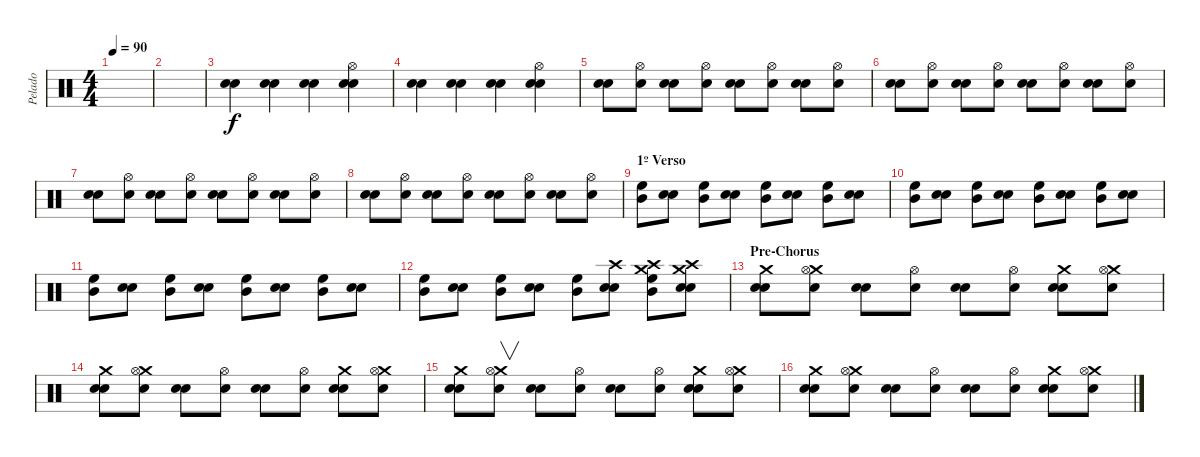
\track ("Pelado" "Pelado") {instrument percussion}
\staff {score}
\articulation defaults
\ts (4 4)
\tempo 90
\clef neutral
\ks c
|
|
("Electric Snare (hit)" "Electric Snare (hit)").4 ("Electric Snare (hit)" "Electric Snare (hit)").4 ("Electric Snare (hit)" "Electric Snare (hit)").4 ("Hi-Hat (open)" "Electric Snare (hit)" "Electric Snare (hit)").4 |
("Electric Snare (hit)" "Electric Snare (hit)").4 ("Electric Snare (hit)" "Electric Snare (hit)").4 ("Electric Snare (hit)" "Electric Snare (hit)").4 ("Hi-Hat (open)" "Electric Snare (hit)" "Electric Snare (hit)").4 |
("Electric Snare (hit)" "Electric Snare (hit)").8 ("Hi-Hat (open)" "Electric Snare (hit)").8 ("Electric Snare (hit)" "Electric Snare (hit)").8 ("Electric Snare (hit)" "Hi-Hat (open)").8 ("Electric Snare (hit)" "Electric Snare (hit)").8 ("Electric Snare (hit)" "Hi-Hat (open)").8 ("Electric Snare (hit)" "Electric Snare (hit)").8 ("Electric Snare (hit)" "Hi-Hat (open)").8 |
("Electric Snare (hit)" "Electric Snare (hit)").8 ("Hi-Hat (open)" "Electric Snare (hit)").8 ("Electric Snare (hit)" "Electric Snare (hit)").8 ("Electric Snare (hit)" "Hi-Hat (open)").8 ("Electric Snare (hit)" "Electric Snare (hit)").8 ("Electric Snare (hit)" "Hi-Hat (open)").8 ("Electric Snare (hit)" "Electric Snare (hit)").8 ("Electric Snare (hit)" "Hi-Hat (open)").8 |
("Electric Snare (hit)" "Electric Snare (hit)").8 ("Hi-Hat (open)" "Electric Snare (hit)").8 ("Electric Snare (hit)" "Electric Snare (hit)").8 ("Electric Snare (hit)" "Hi-Hat (open)").8 ("Electric Snare (hit)" "Electric Snare (hit)").8 ("Electric Snare (hit)" "Hi-Hat (open)").8 ("Electric Snare (hit)" "Electric Snare (hit)").8 ("Electric Snare (hit)" "Hi-Hat (open)").8 |
("Electric Snare (hit)" "Electric Snare (hit)").8 ("Hi-Hat (open)" "Electric Snare (hit)").8 ("Electric Snare (hit)" "Electric Snare (hit)").8 ("Electric Snare (hit)" "Hi-Hat (open)").8 ("Electric Snare (hit)" "Electric Snare (hit)").8 ("Electric Snare (hit)" "Hi-Hat (open)").8 ("Electric Snare (hit)" "Electric Snare (hit)").8 ("Electric Snare (hit)" "Hi-Hat (open)").8 |
\section ("" "1º Verso")
("High Floor Tom (hit)" "Mid Tom (hit)").8 ("Electric Snare (hit)" "Electric Snare (hit)").8 ("High Floor Tom (hit)" "Mid Tom (hit)").8 ("Electric Snare (hit)" "Electric Snare (hit)").8 ("High Floor Tom (hit)" "Mid Tom (hit)").8 ("Electric Snare (hit)" "Electric Snare (hit)").8 ("High Floor Tom (hit)" "Mid Tom (hit)").8 ("Electric Snare (hit)" "Electric Snare (hit)").8 |
("High Floor Tom (hit)" "Mid Tom (hit)").8 ("Electric Snare (hit)" "Electric Snare (hit)").8 ("High Floor Tom (hit)" "Mid Tom (hit)").8 ("Electric Snare (hit)" "Electric Snare (hit)").8 ("High Floor Tom (hit)" "Mid Tom (hit)").8 ("Electric Snare (hit)" "Electric Snare (hit)").8 ("High Floor Tom (hit)" "Mid Tom (hit)").8 ("Electric Snare (hit)" "Electric Snare (hit)").8 |
("High Floor Tom (hit)" "Mid Tom (hit)").8 ("Electric Snare (hit)" "Electric Snare (hit)").8 ("High Floor Tom (hit)" "Mid Tom (hit)").8 ("Electric Snare (hit)" "Electric Snare (hit)").8 ("High Floor Tom (hit)" "Mid Tom (hit)").8 ("Electric Snare (hit)" "Electric Snare (hit)").8 ("High Floor Tom (hit)" "Mid Tom (hit)").8 ("Electric Snare (hit)" "Electric Snare (hit)").8 |
("High Floor Tom (hit)" "Mid Tom (hit)").8 ("Electric Snare (hit)" "Electric Snare (hit)").8 ("High Floor Tom (hit)" "Mid Tom (hit)").8 ("Electric Snare (hit)" "Electric Snare (hit)").8 ("High Floor Tom (hit)" "Mid Tom (hit)").8 ("Crash high (hit)" "Electric Snare (hit)" "Electric Snare (hit)").8 ("Crash high (hit)" "Crash medium (hit)" "High Floor Tom (hit)" "Mid Tom (hit)").8 ("Crash high (hit)" "Crash medium (hit)" "Electric Snare (hit)" "Electric Snare (hit)").8 |
\section ("" "Pre-Chorus")
("Crash medium (hit)" "Electric Snare (hit)" "Electric Snare (hit)").8 ("Crash medium (hit)" "Hi-Hat (open)" "Electric Snare (hit)").8 ("Electric Snare (hit)" "Electric Snare (hit)").8 ("Electric Snare (hit)" "Hi-Hat (open)").8 ("Electric Snare (hit)" "Electric Snare (hit)").8 ("Electric Snare (hit)" "Hi-Hat (open)").8 ("Crash medium (hit)" "Electric Snare (hit)" "Electric Snare (hit)").8 ("Crash medium (hit)" "Electric Snare (hit)" "Hi-Hat (open)").8 |
("Crash medium (hit)" "Electric Snare (hit)" "Electric Snare (hit)").8 ("Crash medium (hit)" "Hi-Hat (open)" "Electric Snare (hit)").8 ("Electric Snare (hit)" "Electric Snare (hit)").8 ("Electric Snare (hit)" "Hi-Hat (open)").8 ("Electric Snare (hit)" "Electric Snare (hit)").8 ("Electric Snare (hit)" "Hi-Hat (open)").8 ("Crash medium (hit)" "Electric Snare (hit)" "Electric Snare (hit)").8 ("Crash medium (hit)" "Electric Snare (hit)" "Hi-Hat (open)").8 |
("Crash medium (hit)" "Electric Snare (hit)" "Electric Snare (hit)").8 ("Crash medium (hit)" "Hi-Hat (open)" "Electric Snare (hit)").8{v} ("Electric Snare (hit)" "Electric Snare (hit)").8 ("Electric Snare (hit)" "Hi-Hat (open)").8 ("Electric Snare (hit)" "Electric Snare (hit)").8 ("Electric Snare (hit)" "Hi-Hat (open)").8 ("Crash medium (hit)" "Electric Snare (hit)" "Electric Snare (hit)").8 ("Crash medium (hit)" "Electric Snare (hit)" "Hi-Hat (open)").8 |
("Crash medium (hit)" "Electric Snare (hit)" "Electric Snare (hit)").8 ("Crash medium (hit)" "Hi-Hat (open)" "Electric Snare (hit)").8 ("Electric Snare (hit)" "Electric Snare (hit)").8 ("Electric Snare (hit)" "Hi-Hat (open)").8 ("Electric Snare (hit)" "Electric Snare (hit)").8 ("Electric Snare (hit)" "Hi-Hat (open)").8 ("Crash medium (hit)" "Electric Snare (hit)" "Electric Snare (hit)").8 ("Crash medium (hit)" "Electric Snare (hit)" "Hi-Hat (open)").8
